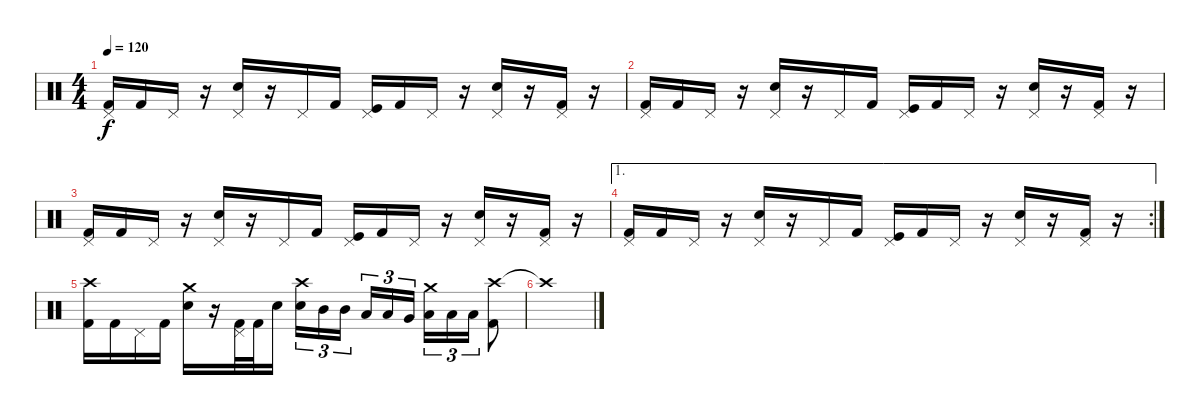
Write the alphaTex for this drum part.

\track "" {instrument percussion}
\staff {score}
\articulation defaults
\ts (4 4)
\tempo 120
\clef neutral
\ks c
("Pedal Hi-Hat (hit)" "Kick (hit) 2").16{dy f} "Kick (hit) 2".16 "Pedal Hi-Hat (hit)".16 r.16 ("Pedal Hi-Hat (hit)" "Electric Snare (hit)").16 r.16 "Pedal Hi-Hat (hit)".16 "Kick (hit) 2".16 ("Pedal Hi-Hat (hit)" "Kick (hit)").16 "Kick (hit) 2".16 "Pedal Hi-Hat (hit)".16 r.16 ("Pedal Hi-Hat (hit)" "Electric Snare (hit)").16 r.16 ("Pedal Hi-Hat (hit)" "Kick (hit) 2").16 r.16 |
("Pedal Hi-Hat (hit)" "Kick (hit) 2").16 "Kick (hit) 2".16 "Pedal Hi-Hat (hit)".16 r.16 ("Pedal Hi-Hat (hit)" "Electric Snare (hit)").16 r.16 "Pedal Hi-Hat (hit)".16 "Kick (hit) 2".16 ("Pedal Hi-Hat (hit)" "Kick (hit)").16 "Kick (hit) 2".16 "Pedal Hi-Hat (hit)".16 r.16 ("Pedal Hi-Hat (hit)" "Electric Snare (hit)").16 r.16 ("Pedal Hi-Hat (hit)" "Kick (hit) 2").16 r.16 |
("Pedal Hi-Hat (hit)" "Kick (hit) 2").16 "Kick (hit) 2".16 "Pedal Hi-Hat (hit)".16 r.16 ("Pedal Hi-Hat (hit)" "Electric Snare (hit)").16 r.16 "Pedal Hi-Hat (hit)".16 "Kick (hit) 2".16 ("Pedal Hi-Hat (hit)" "Kick (hit)").16 "Kick (hit) 2".16 "Pedal Hi-Hat (hit)".16 r.16 ("Pedal Hi-Hat (hit)" "Electric Snare (hit)").16 r.16 ("Pedal Hi-Hat (hit)" "Kick (hit) 2").16 r.16 |
\ae 1
\rc 2
("Pedal Hi-Hat (hit)" "Kick (hit) 2").16 "Kick (hit) 2".16 "Pedal Hi-Hat (hit)".16 r.16 ("Pedal Hi-Hat (hit)" "Electric Snare (hit)").16 r.16 "Pedal Hi-Hat (hit)".16 "Kick (hit) 2".16 ("Pedal Hi-Hat (hit)" "Kick (hit)").16 "Kick (hit) 2".16 "Pedal Hi-Hat (hit)".16 r.16 ("Pedal Hi-Hat (hit)" "Electric Snare (hit)").16 r.16 ("Pedal Hi-Hat (hit)" "Kick (hit) 2").16 r.16 |
("Crash high (hit)" "Kick (hit) 2").16 "Kick (hit) 2".16 "Pedal Hi-Hat (hit)".16 "Kick (hit) 2".16 ("Crash medium (hit)" "Electric Snare (hit)").16 r.16 ("Pedal Hi-Hat (hit)" "Kick (hit) 2").32 "Kick (hit) 2".32 "Electric Snare (hit)".16 ("Crash high (hit)" "Electric Snare (hit)").16{tu (3 2)} "Mid Tom (hit)".16{tu (3 2)} "Mid Tom (hit)".16{tu (3 2) beam splitsecondary} "Low Tom (hit)".16{tu (3 2)} "Low Tom (hit)".16{tu (3 2)} "Very Low Tom (hit)".16{tu (3 2)} ("Crash medium (hit)" "Low Floor Tom (hit)").16{tu (3 2)} "Low Floor Tom (hit)".16{tu (3 2)} "Low Floor Tom (hit)".16{tu (3 2)} ("Crash high (hit)" "Kick (hit) 2").8 |
"Crash high (hit)"{t}.1
